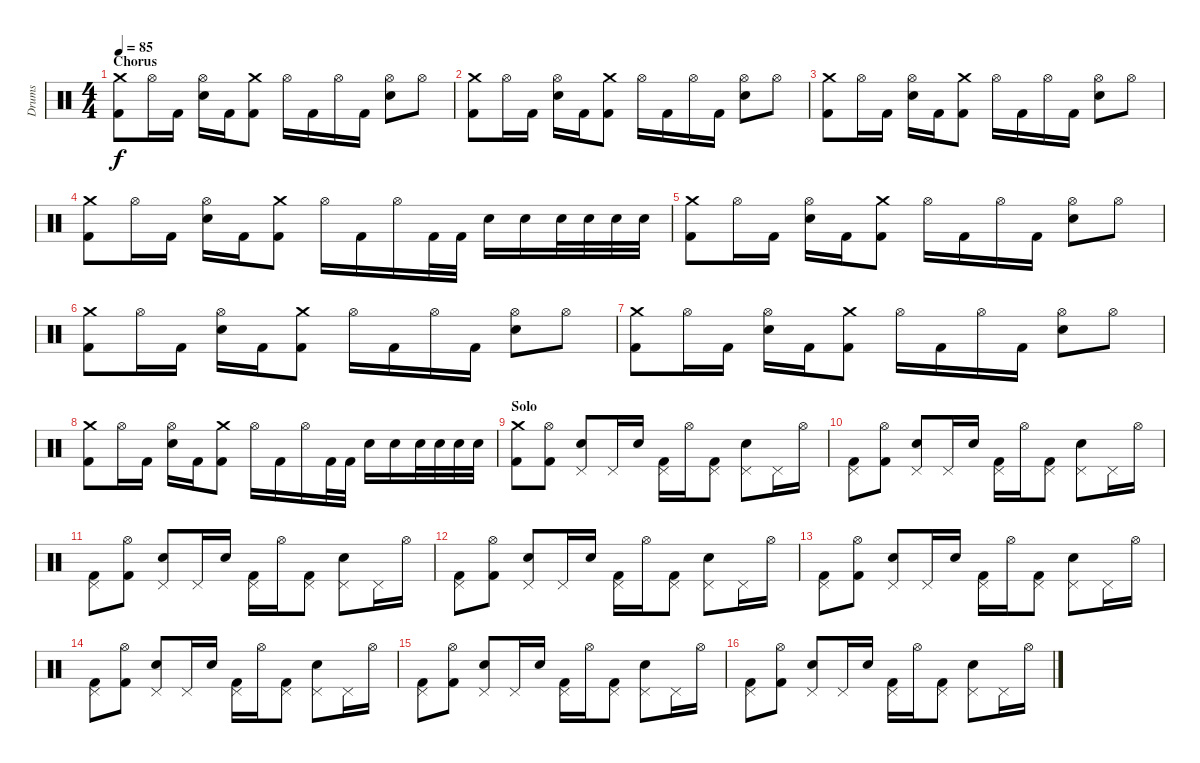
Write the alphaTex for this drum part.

\track ("Drums" "Drums") {instrument percussion}
\staff {score}
\articulation defaults
\ts (4 4)
\section ("" "Chorus")
\tempo 85
\clef neutral
\ks c
("Crash medium (hit)" "Kick (hit) 2").8{dy f} "Hi-Hat (open)".16 "Kick (hit) 2".16 ("Hi-Hat (open)" "Electric Snare (hit)").16 "Kick (hit) 2".16 ("Crash medium (hit)" "Kick (hit) 2").8 "Hi-Hat (open)".16 "Kick (hit) 2".16 "Hi-Hat (open)".16 "Kick (hit) 2".16 ("Hi-Hat (open)" "Electric Snare (hit)").8 "Hi-Hat (open)".8 |
("Crash medium (hit)" "Kick (hit) 2").8 "Hi-Hat (open)".16 "Kick (hit) 2".16 ("Hi-Hat (open)" "Electric Snare (hit)").16 "Kick (hit) 2".16 ("Crash medium (hit)" "Kick (hit) 2").8 "Hi-Hat (open)".16 "Kick (hit) 2".16 "Hi-Hat (open)".16 "Kick (hit) 2".16 ("Hi-Hat (open)" "Electric Snare (hit)").8 "Hi-Hat (open)".8 |
("Crash medium (hit)" "Kick (hit) 2").8 "Hi-Hat (open)".16 "Kick (hit) 2".16 ("Hi-Hat (open)" "Electric Snare (hit)").16 "Kick (hit) 2".16 ("Crash medium (hit)" "Kick (hit) 2").8 "Hi-Hat (open)".16 "Kick (hit) 2".16 "Hi-Hat (open)".16 "Kick (hit) 2".16 ("Hi-Hat (open)" "Electric Snare (hit)").8 "Hi-Hat (open)".8 |
("Crash medium (hit)" "Kick (hit) 2").8 "Hi-Hat (open)".16 "Kick (hit) 2".16 ("Hi-Hat (open)" "Electric Snare (hit)").16 "Kick (hit) 2".16 ("Crash medium (hit)" "Kick (hit) 2").8 "Hi-Hat (open)".16 "Kick (hit) 2".16 "Hi-Hat (open)".16 "Kick (hit) 2".32 "Kick (hit) 2".32 "Electric Snare (hit)".16 "Electric Snare (hit)".16 "Electric Snare (hit)".32 "Electric Snare (hit)".32 "Electric Snare (hit)".32 "Electric Snare (hit)".32 |
("Crash medium (hit)" "Kick (hit) 2").8 "Hi-Hat (open)".16 "Kick (hit) 2".16 ("Hi-Hat (open)" "Electric Snare (hit)").16 "Kick (hit) 2".16 ("Crash medium (hit)" "Kick (hit) 2").8 "Hi-Hat (open)".16 "Kick (hit) 2".16 "Hi-Hat (open)".16 "Kick (hit) 2".16 ("Hi-Hat (open)" "Electric Snare (hit)").8 "Hi-Hat (open)".8 |
("Crash medium (hit)" "Kick (hit) 2").8 "Hi-Hat (open)".16 "Kick (hit) 2".16 ("Hi-Hat (open)" "Electric Snare (hit)").16 "Kick (hit) 2".16 ("Crash medium (hit)" "Kick (hit) 2").8 "Hi-Hat (open)".16 "Kick (hit) 2".16 "Hi-Hat (open)".16 "Kick (hit) 2".16 ("Hi-Hat (open)" "Electric Snare (hit)").8 "Hi-Hat (open)".8 |
("Crash medium (hit)" "Kick (hit) 2").8 "Hi-Hat (open)".16 "Kick (hit) 2".16 ("Hi-Hat (open)" "Electric Snare (hit)").16 "Kick (hit) 2".16 ("Crash medium (hit)" "Kick (hit) 2").8 "Hi-Hat (open)".16 "Kick (hit) 2".16 "Hi-Hat (open)".16 "Kick (hit) 2".16 ("Hi-Hat (open)" "Electric Snare (hit)").8 "Hi-Hat (open)".8 |
("Crash medium (hit)" "Kick (hit) 2").8 "Hi-Hat (open)".16 "Kick (hit) 2".16 ("Hi-Hat (open)" "Electric Snare (hit)").16 "Kick (hit) 2".16 ("Crash medium (hit)" "Kick (hit) 2").8 "Hi-Hat (open)".16 "Kick (hit) 2".16 "Hi-Hat (open)".16 "Kick (hit) 2".32 "Kick (hit) 2".32 "Electric Snare (hit)".16 "Electric Snare (hit)".16 "Electric Snare (hit)".32 "Electric Snare (hit)".32 "Electric Snare (hit)".32 "Electric Snare (hit)".32 |
\section ("" "Solo")
("Crash medium (hit)" "Kick (hit) 2").8 ("Hi-Hat (open)" "Kick (hit) 2").8 ("Pedal Hi-Hat (hit)" "Electric Snare (hit)").8 "Pedal Hi-Hat (hit)".16 "Electric Snare (hit)".16 ("Pedal Hi-Hat (hit)" "Kick (hit) 2").16 "Hi-Hat (open)".16 ("Pedal Hi-Hat (hit)" "Kick (hit) 2").8 ("Pedal Hi-Hat (hit)" "Electric Snare (hit)").8 "Pedal Hi-Hat (hit)".16 "Hi-Hat (open)".16 |
("Pedal Hi-Hat (hit)" "Kick (hit) 2").8 ("Hi-Hat (open)" "Kick (hit) 2").8 ("Pedal Hi-Hat (hit)" "Electric Snare (hit)").8 "Pedal Hi-Hat (hit)".16 "Electric Snare (hit)".16 ("Pedal Hi-Hat (hit)" "Kick (hit) 2").16 "Hi-Hat (open)".16 ("Pedal Hi-Hat (hit)" "Kick (hit) 2").8 ("Pedal Hi-Hat (hit)" "Electric Snare (hit)").8 "Pedal Hi-Hat (hit)".16 "Hi-Hat (open)".16 |
("Pedal Hi-Hat (hit)" "Kick (hit) 2").8 ("Hi-Hat (open)" "Kick (hit) 2").8 ("Pedal Hi-Hat (hit)" "Electric Snare (hit)").8 "Pedal Hi-Hat (hit)".16 "Electric Snare (hit)".16 ("Pedal Hi-Hat (hit)" "Kick (hit) 2").16 "Hi-Hat (open)".16 ("Pedal Hi-Hat (hit)" "Kick (hit) 2").8 ("Pedal Hi-Hat (hit)" "Electric Snare (hit)").8 "Pedal Hi-Hat (hit)".16 "Hi-Hat (open)".16 |
("Pedal Hi-Hat (hit)" "Kick (hit) 2").8 ("Hi-Hat (open)" "Kick (hit) 2").8 ("Pedal Hi-Hat (hit)" "Electric Snare (hit)").8 "Pedal Hi-Hat (hit)".16 "Electric Snare (hit)".16 ("Pedal Hi-Hat (hit)" "Kick (hit) 2").16 "Hi-Hat (open)".16 ("Pedal Hi-Hat (hit)" "Kick (hit) 2").8 ("Pedal Hi-Hat (hit)" "Electric Snare (hit)").8 "Pedal Hi-Hat (hit)".16 "Hi-Hat (open)".16 |
("Pedal Hi-Hat (hit)" "Kick (hit) 2").8 ("Hi-Hat (open)" "Kick (hit) 2").8 ("Pedal Hi-Hat (hit)" "Electric Snare (hit)").8 "Pedal Hi-Hat (hit)".16 "Electric Snare (hit)".16 ("Pedal Hi-Hat (hit)" "Kick (hit) 2").16 "Hi-Hat (open)".16 ("Pedal Hi-Hat (hit)" "Kick (hit) 2").8 ("Pedal Hi-Hat (hit)" "Electric Snare (hit)").8 "Pedal Hi-Hat (hit)".16 "Hi-Hat (open)".16 |
("Pedal Hi-Hat (hit)" "Kick (hit) 2").8 ("Hi-Hat (open)" "Kick (hit) 2").8 ("Pedal Hi-Hat (hit)" "Electric Snare (hit)").8 "Pedal Hi-Hat (hit)".16 "Electric Snare (hit)".16 ("Pedal Hi-Hat (hit)" "Kick (hit) 2").16 "Hi-Hat (open)".16 ("Pedal Hi-Hat (hit)" "Kick (hit) 2").8 ("Pedal Hi-Hat (hit)" "Electric Snare (hit)").8 "Pedal Hi-Hat (hit)".16 "Hi-Hat (open)".16 |
("Pedal Hi-Hat (hit)" "Kick (hit) 2").8 ("Hi-Hat (open)" "Kick (hit) 2").8 ("Pedal Hi-Hat (hit)" "Electric Snare (hit)").8 "Pedal Hi-Hat (hit)".16 "Electric Snare (hit)".16 ("Pedal Hi-Hat (hit)" "Kick (hit) 2").16 "Hi-Hat (open)".16 ("Pedal Hi-Hat (hit)" "Kick (hit) 2").8 ("Pedal Hi-Hat (hit)" "Electric Snare (hit)").8 "Pedal Hi-Hat (hit)".16 "Hi-Hat (open)".16 |
("Pedal Hi-Hat (hit)" "Kick (hit) 2").8 ("Hi-Hat (open)" "Kick (hit) 2").8 ("Pedal Hi-Hat (hit)" "Electric Snare (hit)").8 "Pedal Hi-Hat (hit)".16 "Electric Snare (hit)".16 ("Pedal Hi-Hat (hit)" "Kick (hit) 2").16 "Hi-Hat (open)".16 ("Pedal Hi-Hat (hit)" "Kick (hit) 2").8 ("Pedal Hi-Hat (hit)" "Electric Snare (hit)").8 "Pedal Hi-Hat (hit)".16 "Hi-Hat (open)".16
